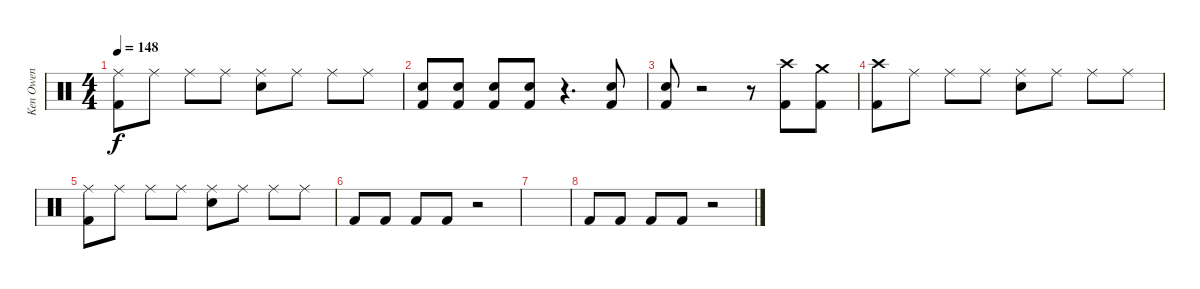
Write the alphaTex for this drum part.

\track ("Ken Owen" "Ken Owen") {instrument percussion}
\staff {score}
\articulation defaults
\ts (4 4)
\tempo 148
\clef neutral
\ks c
("Ride (middle)" "Kick (hit) 2").8{dy f} "Ride (middle)".8 "Ride (middle)".8 "Ride (middle)".8 ("Ride (middle)" "Snare (hit) 2").8 "Ride (middle)".8 "Ride (middle)".8 "Ride (middle)".8 |
("Snare (hit) 2" "Kick (hit) 2").8 ("Snare (hit) 2" "Kick (hit) 2").8 ("Snare (hit) 2" "Kick (hit) 2").8 ("Snare (hit) 2" "Kick (hit) 2").8 r.4{d} ("Snare (hit) 2" "Kick (hit) 2").8 |
("Snare (hit) 2" "Kick (hit) 2").8 r.2 r.8 ("Crash high (hit)" "Kick (hit) 2").8 ("Crash medium (hit)" "Kick (hit) 2").8 |
("Crash high (hit)" "Kick (hit) 2").8 "Ride (middle)".8 "Ride (middle)".8 "Ride (middle)".8 ("Ride (middle)" "Snare (hit) 2").8 "Ride (middle)".8 "Ride (middle)".8 "Ride (middle)".8 |
("Ride (middle)" "Kick (hit) 2").8 "Ride (middle)".8 "Ride (middle)".8 "Ride (middle)".8 ("Ride (middle)" "Snare (hit) 2").8 "Ride (middle)".8 "Ride (middle)".8 "Ride (middle)".8 |
"Kick (hit) 2".8 "Kick (hit) 2".8 "Kick (hit) 2".8 "Kick (hit) 2".8 r.2 |
|
"Kick (hit) 2".8 "Kick (hit) 2".8 "Kick (hit) 2".8 "Kick (hit) 2".8 r.2
